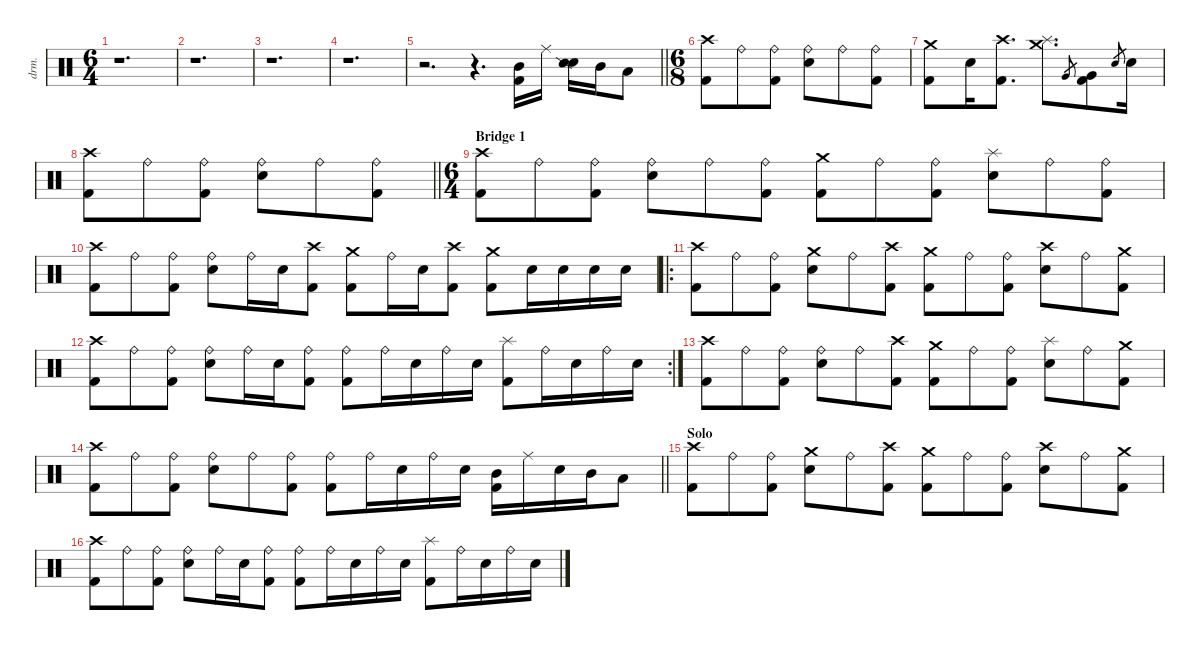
\defaultSystemsLayout 4
\hideDynamics
\bracketExtendMode nobrackets
\otherSystemsTrackNameOrientation horizontal
\track ("Drums" "drm.") {defaultSystemsLayout 4 instrument percussion}
\staff {score}
\articulation defaults
\ts (6 4)
\tempo (93 hide)
\tempo (93 0.00625 hide)
\clef neutral
\ks aminor
r.1{d dy fff beam Down} |
\tempo (91.5 hide)
r.1{d beam Down} |
\tempo (93 0.00625 hide)
r.1{d beam Down} |
r.1{d beam Down} |
\tempo (93 hide)
\barLineRight lightlight
r.2{d beam Down} r.4{d beam Down} ("Mid Tom (hit)" "Kick (hit) 2").16{beam Down} "Ride (middle)".16{beam Down} ("Snare (hit) 2" "Snare (side stick) 2").16{beam Down} "Mid Tom (hit)".16{beam Down} "Low Tom (hit)".8{beam Down} |
\ts (6 8)
\beaming (8 3 3)
\tempo (91.5 hide)
("Crash high (hit)" "Kick (hit) 2").8{beam Down} "Ride (bell)".8{dy f beam Down} ("Ride (bell)" "Kick (hit) 2").8{beam Down} ("Ride (bell)" "Snare (hit) 2").8{beam Down} "Ride (bell)".8{beam Down} ("Ride (bell)" "Kick (hit) 2").8{beam Down} |
\tempo (93 hide)
("Crash medium (hit)" "Kick (hit) 2").8{dy fff beam Down} "Snare (hit) 2".16{dy ff beam Down} ("Crash high (hit)" "Kick (hit) 2").8{d dy fff beam Down} ("Crash medium (hit)" "Splash (hit)").8{d beam Down} "Very Low Tom (hit)".8{gr dy f beam Up} ("Very Low Tom (hit)" "Kick (hit) 2").8{beam Down} "Electric Snare (hit)".8{gr dy ff beam Up} "Snare (hit) 2".16{dy fff beam Down} |
\barLineRight lightlight
("Crash high (hit)" "Kick (hit) 2").8{beam Down} "Ride (bell)".8{dy f beam Down} ("Ride (bell)" "Kick (hit) 2").8{beam Down} ("Ride (bell)" "Snare (hit) 2").8{beam Down} "Ride (bell)".8{beam Down} ("Ride (bell)" "Kick (hit) 2").8{beam Down} |
\ts (6 4)
\beaming (8 3 3 3 3)
\section ("" "Bridge 1")
\tempo (93 hide)
("Crash high (hit)" "Kick (hit) 2").8{dy fff beam Down} "Ride (bell)".8{dy f beam Down} ("Ride (bell)" "Kick (hit) 2").8{beam Down} ("Ride (bell)" "Snare (hit) 2").8{beam Down} "Ride (bell)".8{beam Down} ("Ride (bell)" "Kick (hit) 2").8{beam Down} ("Crash medium (hit)" "Kick (hit) 2").8{dy fff beam Down} "Ride (bell)".8{dy f beam Down} ("Ride (bell)" "Kick (hit) 2").8{beam Down} ("Splash (hit)" "Snare (hit) 2").8{dy fff beam Down} "Ride (bell)".8{dy f beam Down} ("Ride (bell)" "Kick (hit) 2").8{beam Down} |
\tempo (91.5 hide)
("Crash high (hit)" "Kick (hit) 2").8{dy fff beam Down} "Ride (bell)".8{dy f beam Down} ("Ride (bell)" "Kick (hit) 2").8{beam Down} ("Ride (bell)" "Snare (hit) 2").8{beam Down} "Ride (bell)".16{beam Down} "Snare (hit) 2".16{dy ff beam Down} ("Crash high (hit)" "Kick (hit) 2").8{dy fff beam Down} ("Crash medium (hit)" "Kick (hit) 2").8{beam Down} "Ride (bell)".16{dy f beam Down} "Snare (hit) 2".16{dy ff beam Down} ("Crash high (hit)" "Kick (hit) 2").8{dy fff beam Down} ("Crash medium (hit)" "Kick (hit) 2").8{beam Down} "Snare (hit) 2".16{beam Down} "Snare (hit) 2".16{beam Down} "Snare (hit) 2".16{beam Down} "Snare (hit) 2".16{beam Down} |
\ro
\tempo (93 hide)
("Crash high (hit)" "Kick (hit) 2").8{beam Down} "Ride (bell)".8{dy f beam Down} ("Ride (bell)" "Kick (hit) 2").8{beam Down} ("Crash medium (hit)" "Snare (hit) 2").8{dy fff beam Down} "Ride (bell)".8{dy f beam Down} ("Crash high (hit)" "Kick (hit) 2").8{dy fff beam Down} ("Crash medium (hit)" "Kick (hit) 2").8{beam Down} "Ride (bell)".8{dy f beam Down} ("Ride (bell)" "Kick (hit) 2").8{beam Down} ("Crash high (hit)" "Snare (hit) 2").8{dy fff beam Down} "Ride (bell)".8{dy f beam Down} ("Crash medium (hit)" "Kick (hit) 2").8{dy fff beam Down} |
\rc 2
\tempo (91.5 0.00478469 hide)
("Crash high (hit)" "Kick (hit) 2").8{beam Down} "Ride (bell)".8{dy f beam Down} ("Ride (bell)" "Kick (hit) 2").8{beam Down} ("Ride (bell)" "Snare (hit) 2").8{beam Down} "Ride (bell)".16{beam Down} "Snare (hit) 2".16{dy ff beam Down} ("Ride (bell)" "Kick (hit) 2").8{dy f beam Down} ("Ride (bell)" "Kick (hit) 2").8{beam Down} "Ride (bell)".16{beam Down} "Snare (hit) 2".16{dy fff beam Down} "Ride (bell)".16{dy f beam Down} "Snare (hit) 2".16{dy fff beam Down} ("Splash (hit)" "Kick (hit) 2").8{beam Down} "Ride (bell)".16{dy f beam Down} "Snare (hit) 2".16{dy fff beam Down} "Ride (bell)".16{dy f beam Down} "Snare (hit) 2".16{dy fff beam Down} |
\tempo (93 hide)
("Crash high (hit)" "Kick (hit) 2").8{beam Down} "Ride (bell)".8{dy f beam Down} ("Ride (bell)" "Kick (hit) 2").8{beam Down} ("Ride (bell)" "Snare (hit) 2").8{beam Down} "Ride (bell)".8{beam Down} ("Crash high (hit)" "Kick (hit) 2").8{dy fff beam Down} ("Crash medium (hit)" "Kick (hit) 2").8{beam Down} "Ride (bell)".8{dy f beam Down} ("Ride (bell)" "Kick (hit) 2").8{beam Down} ("Splash (hit)" "Snare (hit) 2").8{dy fff beam Down} "Ride (bell)".8{dy f beam Down} ("Crash medium (hit)" "Kick (hit) 2").8{dy fff beam Down} |
\tempo (91.5 hide)
\barLineRight lightlight
("Crash high (hit)" "Kick (hit) 2").8{beam Down} "Ride (bell)".8{dy f beam Down} ("Ride (bell)" "Kick (hit) 2").8{beam Down} ("Ride (bell)" "Snare (hit) 2").8{beam Down} "Ride (bell)".8{beam Down} ("Ride (bell)" "Kick (hit) 2").8{beam Down} ("Ride (bell)" "Kick (hit) 2").8{beam Down} "Ride (bell)".16{beam Down} "Snare (hit) 2".16{dy ff beam Down} "Ride (bell)".16{dy f beam Down} "Snare (hit) 2".16{beam Down} ("Mid Tom (hit)" "Kick (hit) 2").16{beam Down} "Ride (middle)".16{dy fff beam Down} "Snare (hit) 2".16{dy ff beam Down} "Mid Tom (hit)".16{dy fff beam Down} "Low Tom (hit)".8{beam Down} |
\section ("" "Solo")
\tempo (93 hide)
("Crash high (hit)" "Kick (hit) 2").8{beam Down} "Ride (bell)".8{dy f beam Down} ("Ride (bell)" "Kick (hit) 2").8{beam Down} ("Crash medium (hit)" "Snare (hit) 2").8{dy fff beam Down} "Ride (bell)".8{dy f beam Down} ("Crash high (hit)" "Kick (hit) 2").8{dy fff beam Down} ("Crash medium (hit)" "Kick (hit) 2").8{beam Down} "Ride (bell)".8{dy f beam Down} ("Ride (bell)" "Kick (hit) 2").8{beam Down} ("Crash high (hit)" "Snare (hit) 2").8{dy fff beam Down} "Ride (bell)".8{dy f beam Down} ("Crash medium (hit)" "Kick (hit) 2").8{dy fff beam Down} |
("Crash high (hit)" "Kick (hit) 2").8{beam Down} "Ride (bell)".8{dy f beam Down} ("Ride (bell)" "Kick (hit) 2").8{beam Down} ("Ride (bell)" "Snare (hit) 2").8{beam Down} "Ride (bell)".16{beam Down} "Snare (hit) 2".16{dy ff beam Down} ("Ride (bell)" "Kick (hit) 2").8{dy f beam Down} ("Ride (bell)" "Kick (hit) 2").8{beam Down} "Ride (bell)".16{beam Down} "Snare (hit) 2".16{dy fff beam Down} "Ride (bell)".16{dy f beam Down} "Snare (hit) 2".16{dy fff beam Down} ("Splash (hit)" "Kick (hit) 2").8{beam Down} "Ride (bell)".16{dy f beam Down} "Snare (hit) 2".16{dy fff beam Down} "Ride (bell)".16{dy f beam Down} "Snare (hit) 2".16{dy fff beam Down}
